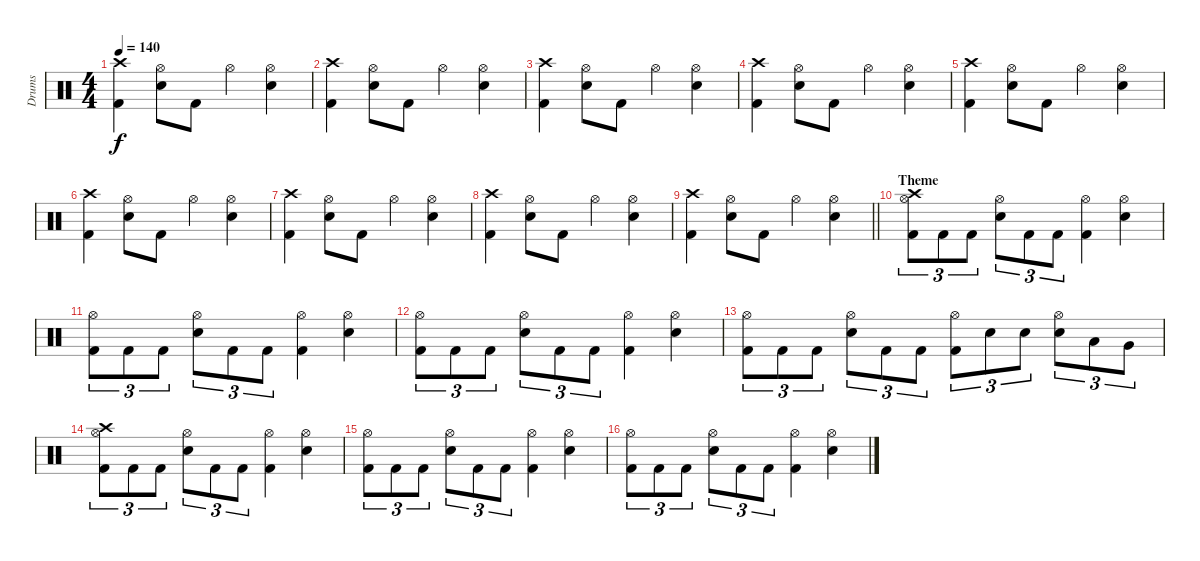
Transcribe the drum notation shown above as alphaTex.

\track ("Drums" "Drums") {instrument percussion}
\staff {score}
\articulation defaults
\ts (4 4)
\tempo 140
\clef neutral
\ks c
("Kick (hit) 2" "Crash high (hit)").4{dy f} ("Snare (hit) 2" "Hi-Hat (open)").8 "Kick (hit) 2".8 "Hi-Hat (open)".4 ("Snare (hit) 2" "Hi-Hat (open)").4 |
("Kick (hit) 2" "Crash high (hit)").4 ("Snare (hit) 2" "Hi-Hat (open)").8 "Kick (hit) 2".8 "Hi-Hat (open)".4 ("Snare (hit) 2" "Hi-Hat (open)").4 |
("Kick (hit) 2" "Crash high (hit)").4 ("Snare (hit) 2" "Hi-Hat (open)").8 "Kick (hit) 2".8 "Hi-Hat (open)".4 ("Snare (hit) 2" "Hi-Hat (open)").4 |
("Kick (hit) 2" "Crash high (hit)").4 ("Snare (hit) 2" "Hi-Hat (open)").8 "Kick (hit) 2".8 "Hi-Hat (open)".4 ("Snare (hit) 2" "Hi-Hat (open)").4 |
("Kick (hit) 2" "Crash high (hit)").4 ("Snare (hit) 2" "Hi-Hat (open)").8 "Kick (hit) 2".8 "Hi-Hat (open)".4 ("Snare (hit) 2" "Hi-Hat (open)").4 |
("Kick (hit) 2" "Crash high (hit)").4 ("Snare (hit) 2" "Hi-Hat (open)").8 "Kick (hit) 2".8 "Hi-Hat (open)".4 ("Snare (hit) 2" "Hi-Hat (open)").4 |
("Kick (hit) 2" "Crash high (hit)").4 ("Snare (hit) 2" "Hi-Hat (open)").8 "Kick (hit) 2".8 "Hi-Hat (open)".4 ("Snare (hit) 2" "Hi-Hat (open)").4 |
("Kick (hit) 2" "Crash high (hit)").4 ("Snare (hit) 2" "Hi-Hat (open)").8 "Kick (hit) 2".8 "Hi-Hat (open)".4 ("Snare (hit) 2" "Hi-Hat (open)").4 |
\barLineRight lightlight
("Kick (hit) 2" "Crash high (hit)").4 ("Snare (hit) 2" "Hi-Hat (open)").8 "Kick (hit) 2".8 "Hi-Hat (open)".4 ("Snare (hit) 2" "Hi-Hat (open)").4 |
\section ("" "Theme")
("Kick (hit) 2" "Hi-Hat (open)" "Crash high (hit)").8{tu (3 2)} "Kick (hit) 2".8{tu (3 2)} "Kick (hit) 2".8{tu (3 2)} ("Snare (hit) 2" "Hi-Hat (open)").8{tu (3 2)} "Kick (hit) 2".8{tu (3 2)} "Kick (hit) 2".8{tu (3 2)} ("Kick (hit) 2" "Hi-Hat (open)").4 ("Snare (hit) 2" "Hi-Hat (open)").4 |
("Kick (hit) 2" "Hi-Hat (open)").8{tu (3 2)} "Kick (hit) 2".8{tu (3 2)} "Kick (hit) 2".8{tu (3 2)} ("Snare (hit) 2" "Hi-Hat (open)").8{tu (3 2)} "Kick (hit) 2".8{tu (3 2)} "Kick (hit) 2".8{tu (3 2)} ("Kick (hit) 2" "Hi-Hat (open)").4 ("Snare (hit) 2" "Hi-Hat (open)").4 |
("Kick (hit) 2" "Hi-Hat (open)").8{tu (3 2)} "Kick (hit) 2".8{tu (3 2)} "Kick (hit) 2".8{tu (3 2)} ("Snare (hit) 2" "Hi-Hat (open)").8{tu (3 2)} "Kick (hit) 2".8{tu (3 2)} "Kick (hit) 2".8{tu (3 2)} ("Kick (hit) 2" "Hi-Hat (open)").4 ("Snare (hit) 2" "Hi-Hat (open)").4 |
("Kick (hit) 2" "Hi-Hat (open)").8{tu (3 2)} "Kick (hit) 2".8{tu (3 2)} "Kick (hit) 2".8{tu (3 2)} ("Snare (hit) 2" "Hi-Hat (open)").8{tu (3 2)} "Kick (hit) 2".8{tu (3 2)} "Kick (hit) 2".8{tu (3 2)} ("Kick (hit) 2" "Hi-Hat (open)").8{tu (3 2)} "Snare (hit) 2".8{tu (3 2)} "Snare (hit) 2".8{tu (3 2)} ("Snare (hit) 2" "Hi-Hat (open)").8{tu (3 2)} "Low Tom (hit)".8{tu (3 2)} "Very Low Tom (hit)".8{tu (3 2)} |
("Kick (hit) 2" "Hi-Hat (open)" "Crash high (hit)").8{tu (3 2)} "Kick (hit) 2".8{tu (3 2)} "Kick (hit) 2".8{tu (3 2)} ("Snare (hit) 2" "Hi-Hat (open)").8{tu (3 2)} "Kick (hit) 2".8{tu (3 2)} "Kick (hit) 2".8{tu (3 2)} ("Kick (hit) 2" "Hi-Hat (open)").4 ("Snare (hit) 2" "Hi-Hat (open)").4 |
("Kick (hit) 2" "Hi-Hat (open)").8{tu (3 2)} "Kick (hit) 2".8{tu (3 2)} "Kick (hit) 2".8{tu (3 2)} ("Snare (hit) 2" "Hi-Hat (open)").8{tu (3 2)} "Kick (hit) 2".8{tu (3 2)} "Kick (hit) 2".8{tu (3 2)} ("Kick (hit) 2" "Hi-Hat (open)").4 ("Snare (hit) 2" "Hi-Hat (open)").4 |
("Kick (hit) 2" "Hi-Hat (open)").8{tu (3 2)} "Kick (hit) 2".8{tu (3 2)} "Kick (hit) 2".8{tu (3 2)} ("Snare (hit) 2" "Hi-Hat (open)").8{tu (3 2)} "Kick (hit) 2".8{tu (3 2)} "Kick (hit) 2".8{tu (3 2)} ("Kick (hit) 2" "Hi-Hat (open)").4 ("Snare (hit) 2" "Hi-Hat (open)").4
